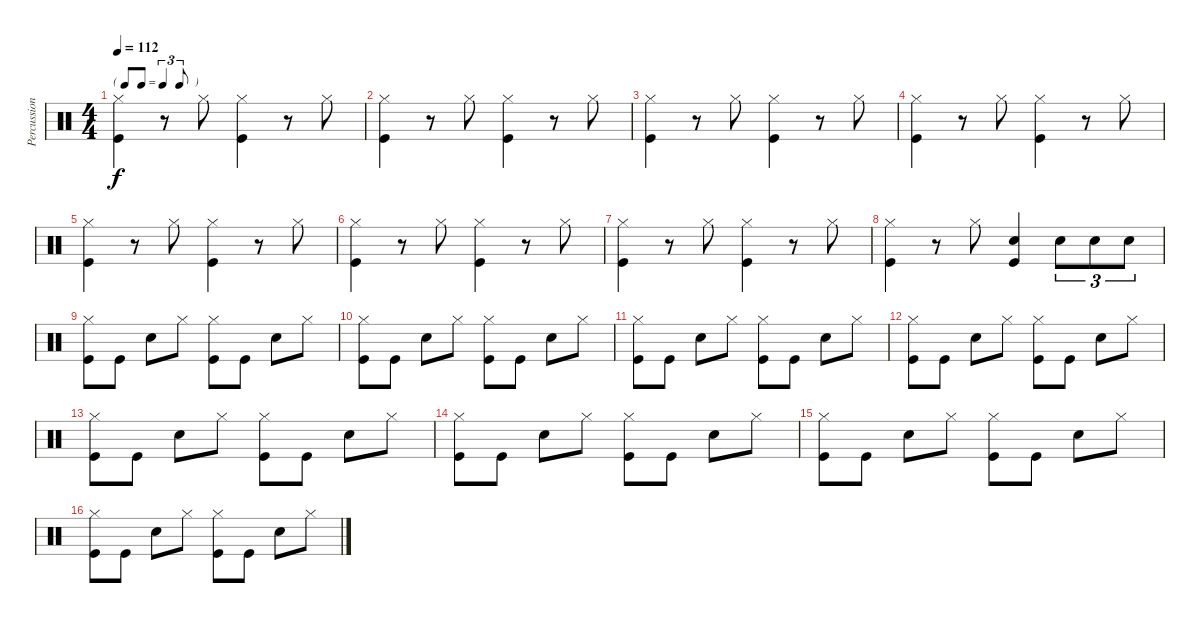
\track ("Percussion" "Percussion") {instrument percussion}
\staff {score}
\articulation defaults
\ts (4 4)
\tf triplet8th
\tempo 112
\clef neutral
\ks c
("Hi-Hat (closed)" "Kick (hit)").4{dy f} r.8 "Hi-Hat (closed)".8 ("Hi-Hat (closed)" "Kick (hit)").4 r.8 "Hi-Hat (closed)".8 |
("Hi-Hat (closed)" "Kick (hit)").4 r.8 "Hi-Hat (closed)".8 ("Hi-Hat (closed)" "Kick (hit)").4 r.8 "Hi-Hat (closed)".8 |
("Hi-Hat (closed)" "Kick (hit)").4 r.8 "Hi-Hat (closed)".8 ("Hi-Hat (closed)" "Kick (hit)").4 r.8 "Hi-Hat (closed)".8 |
("Hi-Hat (closed)" "Kick (hit)").4 r.8 "Hi-Hat (closed)".8 ("Hi-Hat (closed)" "Kick (hit)").4 r.8 "Hi-Hat (closed)".8 |
("Hi-Hat (closed)" "Kick (hit)").4 r.8 "Hi-Hat (closed)".8 ("Hi-Hat (closed)" "Kick (hit)").4 r.8 "Hi-Hat (closed)".8 |
("Hi-Hat (closed)" "Kick (hit)").4 r.8 "Hi-Hat (closed)".8 ("Hi-Hat (closed)" "Kick (hit)").4 r.8 "Hi-Hat (closed)".8 |
("Hi-Hat (closed)" "Kick (hit)").4 r.8 "Hi-Hat (closed)".8 ("Hi-Hat (closed)" "Kick (hit)").4 r.8 "Hi-Hat (closed)".8 |
("Hi-Hat (closed)" "Kick (hit)").4 r.8 "Hi-Hat (closed)".8 ("Snare (hit) 2" "Kick (hit)").4 "Snare (hit) 2".8{tu (3 2)} "Snare (hit) 2".8{tu (3 2)} "Snare (hit) 2".8{tu (3 2)} |
("Hi-Hat (closed)" "Kick (hit)").8 "Kick (hit)".8 "Snare (hit) 2".8 "Hi-Hat (closed)".8 ("Hi-Hat (closed)" "Kick (hit)").8 "Kick (hit)".8 "Snare (hit) 2".8 "Hi-Hat (closed)".8 |
("Hi-Hat (closed)" "Kick (hit)").8 "Kick (hit)".8 "Snare (hit) 2".8 "Hi-Hat (closed)".8 ("Hi-Hat (closed)" "Kick (hit)").8 "Kick (hit)".8 "Snare (hit) 2".8 "Hi-Hat (closed)".8 |
("Hi-Hat (closed)" "Kick (hit)").8 "Kick (hit)".8 "Snare (hit) 2".8 "Hi-Hat (closed)".8 ("Hi-Hat (closed)" "Kick (hit)").8 "Kick (hit)".8 "Snare (hit) 2".8 "Hi-Hat (closed)".8 |
("Hi-Hat (closed)" "Kick (hit)").8 "Kick (hit)".8 "Snare (hit) 2".8 "Hi-Hat (closed)".8 ("Hi-Hat (closed)" "Kick (hit)").8 "Kick (hit)".8 "Snare (hit) 2".8 "Hi-Hat (closed)".8 |
("Hi-Hat (closed)" "Kick (hit)").8 "Kick (hit)".8 "Snare (hit) 2".8 "Hi-Hat (closed)".8 ("Hi-Hat (closed)" "Kick (hit)").8 "Kick (hit)".8 "Snare (hit) 2".8 "Hi-Hat (closed)".8 |
("Hi-Hat (closed)" "Kick (hit)").8 "Kick (hit)".8 "Snare (hit) 2".8 "Hi-Hat (closed)".8 ("Hi-Hat (closed)" "Kick (hit)").8 "Kick (hit)".8 "Snare (hit) 2".8 "Hi-Hat (closed)".8 |
("Hi-Hat (closed)" "Kick (hit)").8 "Kick (hit)".8 "Snare (hit) 2".8 "Hi-Hat (closed)".8 ("Hi-Hat (closed)" "Kick (hit)").8 "Kick (hit)".8 "Snare (hit) 2".8 "Hi-Hat (closed)".8 |
("Hi-Hat (closed)" "Kick (hit)").8 "Kick (hit)".8 "Snare (hit) 2".8 "Hi-Hat (closed)".8 ("Hi-Hat (closed)" "Kick (hit)").8 "Kick (hit)".8 "Snare (hit) 2".8 "Hi-Hat (closed)".8
